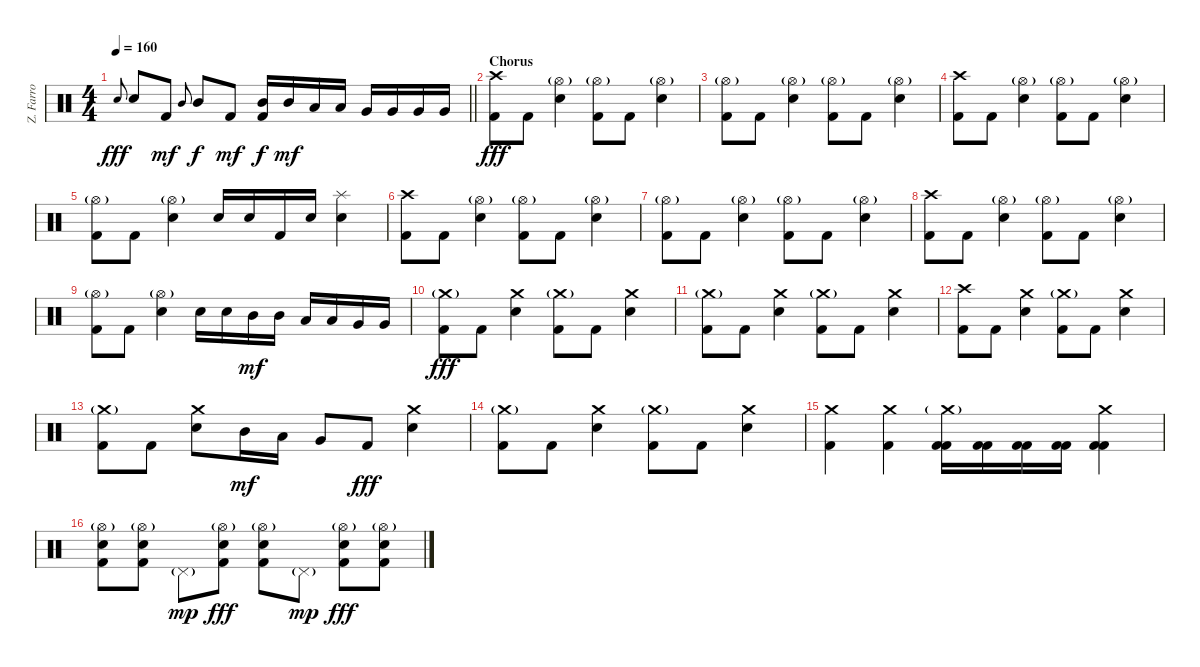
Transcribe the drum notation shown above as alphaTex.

\track ("Z. Farro" "Z. Farro") {instrument percussion}
\staff {score}
\articulation defaults
\ts (4 4)
\tempo 160
\clef neutral
\barLineRight lightlight
\ks c "Electric Snare (hit)".8{gr onbeat dy fff} "Electric Snare (hit)".8 "Kick (hit) 2".8{dy mf} "Mid Tom (hit)".8{gr onbeat} "Mid Tom (hit)".8{dy f} "Kick (hit) 2".8{dy mf}
("Mid Tom (hit)" "Kick (hit) 2").16{dy f} "Mid Tom (hit)".16{dy mf} "Low Tom (hit)".16 "Low Tom (hit)".16 "Very Low Tom (hit)".16 "Very Low Tom (hit)".16 "Very Low Tom (hit)".16 "Very Low Tom (hit)".16 |
\section ("" "Chorus")
("Crash high (hit)" "Kick (hit) 2").8{dy fff} "Kick (hit) 2".8 ("Hi-Hat (open)"{g} "Electric Snare (hit)").4 ("Hi-Hat (open)"{g} "Kick (hit) 2").8 "Kick (hit) 2".8 ("Hi-Hat (open)"{g} "Electric Snare (hit)").4 |
("Hi-Hat (open)"{g} "Kick (hit) 2").8 "Kick (hit) 2".8 ("Hi-Hat (open)"{g} "Electric Snare (hit)").4 ("Hi-Hat (open)"{g} "Kick (hit) 2").8 "Kick (hit) 2".8 ("Hi-Hat (open)"{g} "Electric Snare (hit)").4 |
("Crash high (hit)" "Kick (hit) 2").8 "Kick (hit) 2".8 ("Hi-Hat (open)"{g} "Electric Snare (hit)").4 ("Hi-Hat (open)"{g} "Kick (hit) 2").8 "Kick (hit) 2".8 ("Hi-Hat (open)"{g} "Electric Snare (hit)").4 |
("Hi-Hat (open)"{g} "Kick (hit) 2").8 "Kick (hit) 2".8 ("Hi-Hat (open)"{g} "Electric Snare (hit)").4 "Electric Snare (hit)".16 "Electric Snare (hit)".16 "Kick (hit) 2".16 "Electric Snare (hit)".16 ("Splash (hit)" "Electric Snare (hit)").4 |
("Crash high (hit)" "Kick (hit) 2").8 "Kick (hit) 2".8 ("Hi-Hat (open)"{g} "Electric Snare (hit)").4 ("Hi-Hat (open)"{g} "Kick (hit) 2").8 "Kick (hit) 2".8 ("Hi-Hat (open)"{g} "Electric Snare (hit)").4 |
("Hi-Hat (open)"{g} "Kick (hit) 2").8 "Kick (hit) 2".8 ("Hi-Hat (open)"{g} "Electric Snare (hit)").4 ("Hi-Hat (open)"{g} "Kick (hit) 2").8 "Kick (hit) 2".8 ("Hi-Hat (open)"{g} "Electric Snare (hit)").4 |
("Crash high (hit)" "Kick (hit) 2").8 "Kick (hit) 2".8 ("Hi-Hat (open)"{g} "Electric Snare (hit)").4 ("Hi-Hat (open)"{g} "Kick (hit) 2").8 "Kick (hit) 2".8 ("Hi-Hat (open)"{g} "Electric Snare (hit)").4 |
("Hi-Hat (open)"{g} "Kick (hit) 2").8 "Kick (hit) 2".8 ("Hi-Hat (open)"{g} "Electric Snare (hit)").4 "Electric Snare (hit)".16 "Electric Snare (hit)".16 "Mid Tom (hit)".16{dy mf} "Mid Tom (hit)".16 "Low Tom (hit)".16 "Low Tom (hit)".16 "Very Low Tom (hit)".16 "Very Low Tom (hit)".16 |
("Crash medium (hit)"{g} "Kick (hit) 2").8{dy fff} "Kick (hit) 2".8 ("Crash medium (hit)" "Electric Snare (hit)").4 ("Crash medium (hit)"{g} "Kick (hit) 2").8 "Kick (hit) 2".8 ("Crash medium (hit)" "Electric Snare (hit)").4 |
("Crash medium (hit)"{g} "Kick (hit) 2").8 "Kick (hit) 2".8 ("Crash medium (hit)" "Electric Snare (hit)").4 ("Crash medium (hit)"{g} "Kick (hit) 2").8 "Kick (hit) 2".8 ("Crash medium (hit)" "Electric Snare (hit)").4 |
("Crash high (hit)" "Kick (hit) 2").8 "Kick (hit) 2".8 ("Crash medium (hit)" "Electric Snare (hit)").4 ("Crash medium (hit)"{g} "Kick (hit) 2").8 "Kick (hit) 2".8 ("Crash medium (hit)" "Electric Snare (hit)").4 |
("Crash medium (hit)"{g} "Kick (hit) 2").8 "Kick (hit) 2".8 ("Crash medium (hit)" "Electric Snare (hit)").8 "Mid Tom (hit)".16{dy mf} "Low Tom (hit)".16 "Very Low Tom (hit)".8 "Kick (hit) 2".8{dy fff} ("Crash medium (hit)" "Electric Snare (hit)").4 |
("Crash medium (hit)"{g} "Kick (hit) 2").8 "Kick (hit) 2".8 ("Crash medium (hit)" "Electric Snare (hit)").4 ("Crash medium (hit)"{g} "Kick (hit) 2").8 "Kick (hit) 2".8 ("Crash medium (hit)" "Electric Snare (hit)").4 |
("Crash medium (hit)" "Kick (hit) 2").4 ("Crash medium (hit)" "Kick (hit) 2").4 ("Crash medium (hit)"{g} "Kick (hit) 2" "Kick (hit) 2").16 ("Kick (hit) 2" "Kick (hit) 2").16 ("Kick (hit) 2" "Kick (hit) 2").16 ("Kick (hit) 2" "Kick (hit) 2").16 ("Crash medium (hit)" "Kick (hit) 2" "Kick (hit) 2").4 |
("Hi-Hat (open)"{g} "Electric Snare (hit)" "Kick (hit) 2").8 ("Hi-Hat (open)"{g} "Electric Snare (hit)" "Kick (hit) 2").8 "Pedal Hi-Hat (hit)"{g}.8{dy mp} ("Hi-Hat (open)"{g} "Electric Snare (hit)" "Kick (hit) 2").8{dy fff} ("Hi-Hat (open)"{g} "Electric Snare (hit)" "Kick (hit) 2").8 "Pedal Hi-Hat (hit)"{g}.8{dy mp} ("Hi-Hat (open)"{g} "Electric Snare (hit)" "Kick (hit) 2").8{dy fff} ("Hi-Hat (open)"{g} "Electric Snare (hit)" "Kick (hit) 2").8
